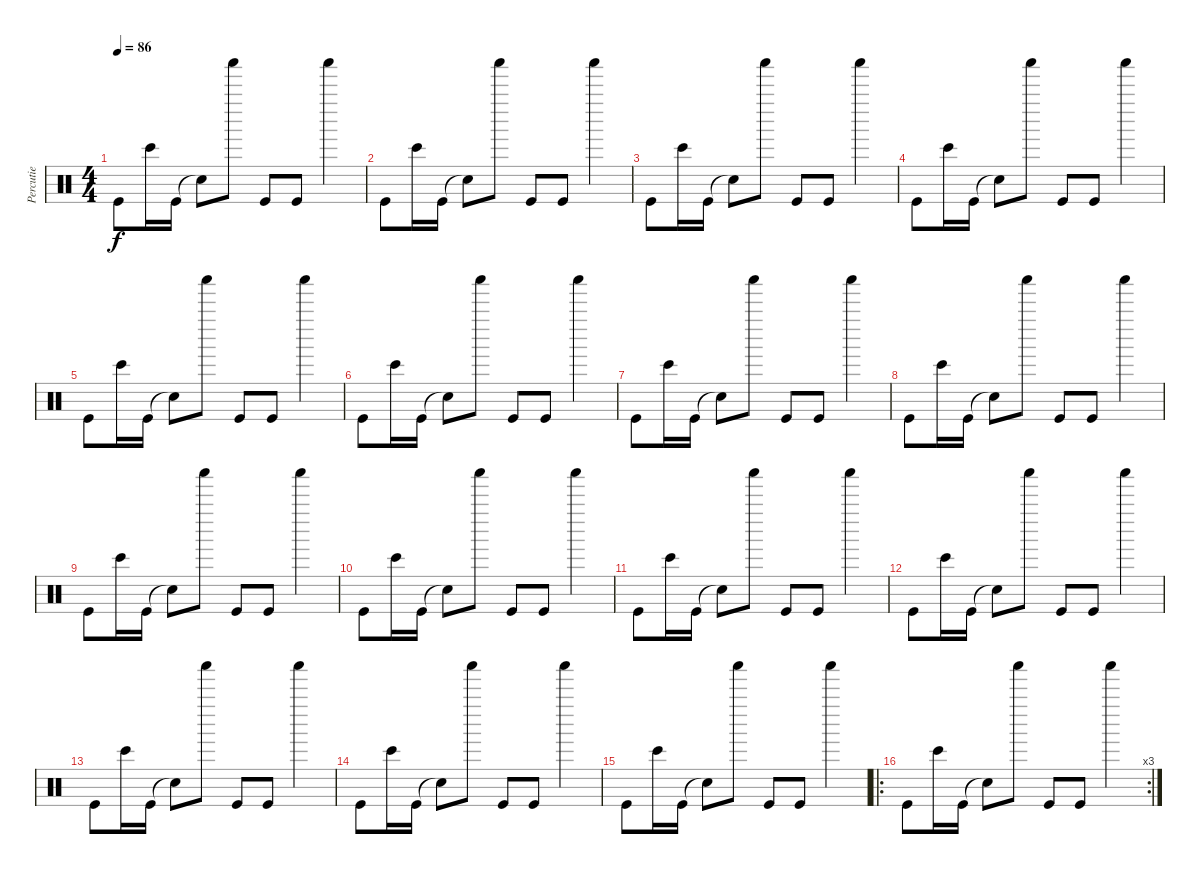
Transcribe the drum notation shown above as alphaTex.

\track ("Percutie" "Percutie") {instrument percussion}
\staff {score}
\articulation defaults
\ts (4 4)
\tempo 86
\clef neutral
\ks c "Kick (hit)".8{dy f} "Bongo High (hit)".16 "Kick (hit)".16 "Snare (hit)"{t}.8 "Shaker (hit)".8 "Kick (hit)".8 "Kick (hit)".8 "Shaker (hit)".4
|
"Kick (hit)".8 "Bongo High (hit)".16 "Kick (hit)".16 "Snare (hit)"{t}.8 "Shaker (hit)".8 "Kick (hit)".8 "Kick (hit)".8 "Shaker (hit)".4 |
"Kick (hit)".8 "Bongo High (hit)".16 "Kick (hit)".16 "Snare (hit)"{t}.8 "Shaker (hit)".8 "Kick (hit)".8 "Kick (hit)".8 "Shaker (hit)".4 |
"Kick (hit)".8 "Bongo High (hit)".16 "Kick (hit)".16 "Snare (hit)"{t}.8 "Shaker (hit)".8 "Kick (hit)".8 "Kick (hit)".8 "Shaker (hit)".4 |
"Kick (hit)".8 "Bongo High (hit)".16 "Kick (hit)".16 "Snare (hit)"{t}.8 "Shaker (hit)".8 "Kick (hit)".8 "Kick (hit)".8 "Shaker (hit)".4 |
"Kick (hit)".8 "Bongo High (hit)".16 "Kick (hit)".16 "Snare (hit)"{t}.8 "Shaker (hit)".8 "Kick (hit)".8 "Kick (hit)".8 "Shaker (hit)".4 |
"Kick (hit)".8 "Bongo High (hit)".16 "Kick (hit)".16 "Snare (hit)"{t}.8 "Shaker (hit)".8 "Kick (hit)".8 "Kick (hit)".8 "Shaker (hit)".4 |
"Kick (hit)".8 "Bongo High (hit)".16 "Kick (hit)".16 "Snare (hit)"{t}.8 "Shaker (hit)".8 "Kick (hit)".8 "Kick (hit)".8 "Shaker (hit)".4 |
"Kick (hit)".8 "Bongo High (hit)".16 "Kick (hit)".16 "Snare (hit)"{t}.8 "Shaker (hit)".8 "Kick (hit)".8 "Kick (hit)".8 "Shaker (hit)".4 |
"Kick (hit)".8 "Bongo High (hit)".16 "Kick (hit)".16 "Snare (hit)"{t}.8 "Shaker (hit)".8 "Kick (hit)".8 "Kick (hit)".8 "Shaker (hit)".4 |
"Kick (hit)".8 "Bongo High (hit)".16 "Kick (hit)".16 "Snare (hit)"{t}.8 "Shaker (hit)".8 "Kick (hit)".8 "Kick (hit)".8 "Shaker (hit)".4 |
"Kick (hit)".8 "Bongo High (hit)".16 "Kick (hit)".16 "Snare (hit)"{t}.8 "Shaker (hit)".8 "Kick (hit)".8 "Kick (hit)".8 "Shaker (hit)".4 |
"Kick (hit)".8 "Bongo High (hit)".16 "Kick (hit)".16 "Snare (hit)"{t}.8 "Shaker (hit)".8 "Kick (hit)".8 "Kick (hit)".8 "Shaker (hit)".4 |
"Kick (hit)".8 "Bongo High (hit)".16 "Kick (hit)".16 "Snare (hit)"{t}.8 "Shaker (hit)".8 "Kick (hit)".8 "Kick (hit)".8 "Shaker (hit)".4 |
"Kick (hit)".8 "Bongo High (hit)".16 "Kick (hit)".16 "Snare (hit)"{t}.8 "Shaker (hit)".8 "Kick (hit)".8 "Kick (hit)".8 "Shaker (hit)".4 |
\ro
\rc 3 "Kick (hit)".8 "Bongo High (hit)".16 "Kick (hit)".16 "Snare (hit)"{t}.8 "Shaker (hit)".8 "Kick (hit)".8 "Kick (hit)".8 "Shaker (hit)".4
